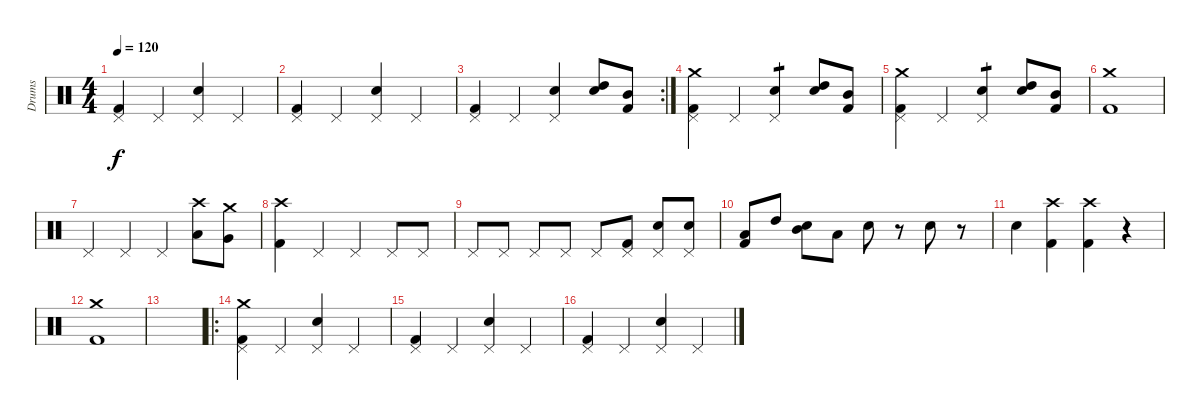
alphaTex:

\track ("Drums" "Drums") {instrument percussion}
\staff {score}
\articulation defaults
\ts (4 4)
\tempo 120
\clef neutral
\ks c
("Kick (hit) 2" "Pedal Hi-Hat (hit)").4{dy f} "Pedal Hi-Hat (hit)".4 ("Snare (hit) 2" "Pedal Hi-Hat (hit)").4 "Pedal Hi-Hat (hit)".4 |
("Kick (hit) 2" "Pedal Hi-Hat (hit)").4 "Pedal Hi-Hat (hit)".4 ("Snare (hit) 2" "Pedal Hi-Hat (hit)").4 "Pedal Hi-Hat (hit)".4 |
\rc 2
("Kick (hit) 2" "Pedal Hi-Hat (hit)").4 "Pedal Hi-Hat (hit)".4 ("Snare (hit) 2" "Pedal Hi-Hat (hit)").4 ("Snare (hit) 2" "High Tom (hit)").8 ("Kick (hit) 2" "Mid Tom (hit)").8 |
("Kick (hit) 2" "Pedal Hi-Hat (hit)" "Crash medium (hit)").4 "Pedal Hi-Hat (hit)".4 ("Snare (hit) 2" "Pedal Hi-Hat (hit)").4{tp 1} ("Snare (hit) 2" "High Tom (hit)").8 ("Kick (hit) 2" "Mid Tom (hit)").8 |
("Kick (hit) 2" "Pedal Hi-Hat (hit)" "Crash medium (hit)").4 "Pedal Hi-Hat (hit)".4 ("Snare (hit) 2" "Pedal Hi-Hat (hit)").4{tp 1} ("Snare (hit) 2" "High Tom (hit)").8 ("Kick (hit) 2" "Mid Tom (hit)").8 |
("Crash medium (hit)" "Kick (hit) 2").1 |
"Pedal Hi-Hat (hit)".4 "Pedal Hi-Hat (hit)".4 "Pedal Hi-Hat (hit)".4 ("Low Tom (hit)" "Crash high (hit)").8 ("Very Low Tom (hit)" "Crash medium (hit)").8 |
("Kick (hit) 2" "Crash high (hit)").4 "Pedal Hi-Hat (hit)".4 "Pedal Hi-Hat (hit)".4 "Pedal Hi-Hat (hit)".8 "Pedal Hi-Hat (hit)".8 |
"Pedal Hi-Hat (hit)".8 "Pedal Hi-Hat (hit)".8 "Pedal Hi-Hat (hit)".8 "Pedal Hi-Hat (hit)".8 "Pedal Hi-Hat (hit)".8 ("Kick (hit) 2" "Pedal Hi-Hat (hit)").8 ("Snare (hit) 2" "Pedal Hi-Hat (hit)").8 ("Snare (hit) 2" "Pedal Hi-Hat (hit)").8 |
("Kick (hit) 2" "Low Floor Tom (hit)").8 "High Tom (hit)".8 ("Snare (hit) 2" "Mid Tom (hit)").8 "Low Tom (hit)".8 "Snare (hit) 2".8 r.8 "Snare (hit) 2".8 r.8 |
"Snare (hit) 2".4 ("Kick (hit) 2" "Crash high (hit)").4 ("Kick (hit) 2" "Crash high (hit)").4 r.4 |
("Kick (hit) 2" "Crash medium (hit)").1 |
|
\ro
("Kick (hit) 2" "Pedal Hi-Hat (hit)" "Crash medium (hit)").4 "Pedal Hi-Hat (hit)".4 ("Snare (hit) 2" "Pedal Hi-Hat (hit)").4 "Pedal Hi-Hat (hit)".4 |
("Kick (hit) 2" "Pedal Hi-Hat (hit)").4 "Pedal Hi-Hat (hit)".4 ("Snare (hit) 2" "Pedal Hi-Hat (hit)").4 "Pedal Hi-Hat (hit)".4 |
("Kick (hit) 2" "Pedal Hi-Hat (hit)").4 "Pedal Hi-Hat (hit)".4 ("Snare (hit) 2" "Pedal Hi-Hat (hit)").4 "Pedal Hi-Hat (hit)".4
